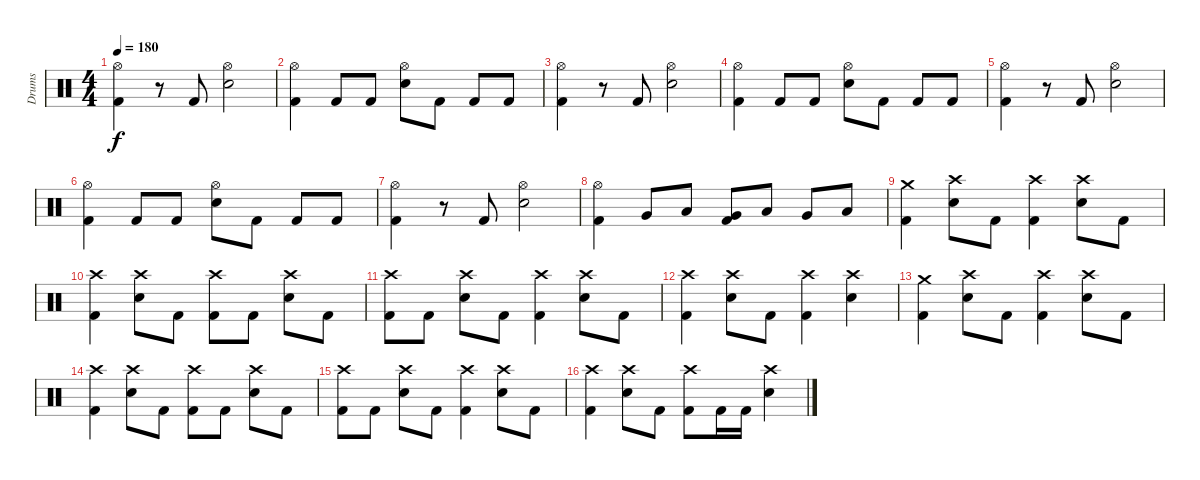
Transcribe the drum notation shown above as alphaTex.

\track ("Drums" "Drums") {instrument percussion}
\staff {score}
\articulation defaults
\ts (4 4)
\tempo 180
\clef neutral
\ks c
("Hi-Hat (open)" "Kick (hit) 2").4{dy f} r.8 "Kick (hit) 2".8 ("Hi-Hat (open)" "Snare (hit) 2").2 |
("Hi-Hat (open)" "Kick (hit) 2").4 "Kick (hit) 2".8 "Kick (hit) 2".8 ("Hi-Hat (open)" "Snare (hit) 2").8 "Kick (hit) 2".8 "Kick (hit) 2".8 "Kick (hit) 2".8 |
("Hi-Hat (open)" "Kick (hit) 2").4 r.8 "Kick (hit) 2".8 ("Hi-Hat (open)" "Snare (hit) 2").2 |
("Hi-Hat (open)" "Kick (hit) 2").4 "Kick (hit) 2".8 "Kick (hit) 2".8 ("Hi-Hat (open)" "Snare (hit) 2").8 "Kick (hit) 2".8 "Kick (hit) 2".8 "Kick (hit) 2".8 |
("Hi-Hat (open)" "Kick (hit) 2").4 r.8 "Kick (hit) 2".8 ("Hi-Hat (open)" "Snare (hit) 2").2 |
("Hi-Hat (open)" "Kick (hit) 2").4 "Kick (hit) 2".8 "Kick (hit) 2".8 ("Hi-Hat (open)" "Snare (hit) 2").8 "Kick (hit) 2".8 "Kick (hit) 2".8 "Kick (hit) 2".8 |
("Hi-Hat (open)" "Kick (hit) 2").4 r.8 "Kick (hit) 2".8 ("Hi-Hat (open)" "Snare (hit) 2").2 |
("Hi-Hat (open)" "Kick (hit) 2").4 "Very Low Tom (hit)".8 "Low Tom (hit)".8 ("Very Low Tom (hit)" "Kick (hit) 2").8 "Low Tom (hit)".8 "Very Low Tom (hit)".8 "Low Tom (hit)".8 |
("Crash medium (hit)" "Kick (hit) 2").4 ("Crash high (hit)" "Snare (hit) 2").8 "Kick (hit) 2".8 ("Crash high (hit)" "Kick (hit) 2").4 ("Crash high (hit)" "Snare (hit) 2").8 "Kick (hit) 2".8 |
("Crash high (hit)" "Kick (hit) 2").4 ("Crash high (hit)" "Snare (hit) 2").8 "Kick (hit) 2".8 ("Crash high (hit)" "Kick (hit) 2").8 "Kick (hit) 2".8 ("Crash high (hit)" "Snare (hit) 2").8 "Kick (hit) 2".8 |
("Crash high (hit)" "Kick (hit) 2").8 "Kick (hit) 2".8 ("Crash high (hit)" "Snare (hit) 2").8 "Kick (hit) 2".8 ("Crash high (hit)" "Kick (hit) 2").4 ("Crash high (hit)" "Snare (hit) 2").8 "Kick (hit) 2".8 |
("Crash high (hit)" "Kick (hit) 2").4 ("Crash high (hit)" "Snare (hit) 2").8 "Kick (hit) 2".8 ("Crash high (hit)" "Kick (hit) 2").4 ("Crash high (hit)" "Snare (hit) 2").4 |
("Crash medium (hit)" "Kick (hit) 2").4 ("Crash high (hit)" "Snare (hit) 2").8 "Kick (hit) 2".8 ("Crash high (hit)" "Kick (hit) 2").4 ("Crash high (hit)" "Snare (hit) 2").8 "Kick (hit) 2".8 |
("Crash high (hit)" "Kick (hit) 2").4 ("Crash high (hit)" "Snare (hit) 2").8 "Kick (hit) 2".8 ("Crash high (hit)" "Kick (hit) 2").8 "Kick (hit) 2".8 ("Crash high (hit)" "Snare (hit) 2").8 "Kick (hit) 2".8 |
("Crash high (hit)" "Kick (hit) 2").8 "Kick (hit) 2".8 ("Crash high (hit)" "Snare (hit) 2").8 "Kick (hit) 2".8 ("Crash high (hit)" "Kick (hit) 2").4 ("Crash high (hit)" "Snare (hit) 2").8 "Kick (hit) 2".8 |
("Crash high (hit)" "Kick (hit) 2").4 ("Crash high (hit)" "Snare (hit) 2").8 "Kick (hit) 2".8 ("Crash high (hit)" "Kick (hit) 2").8 "Kick (hit) 2".16 "Kick (hit) 2".16 ("Crash high (hit)" "Snare (hit) 2").4
